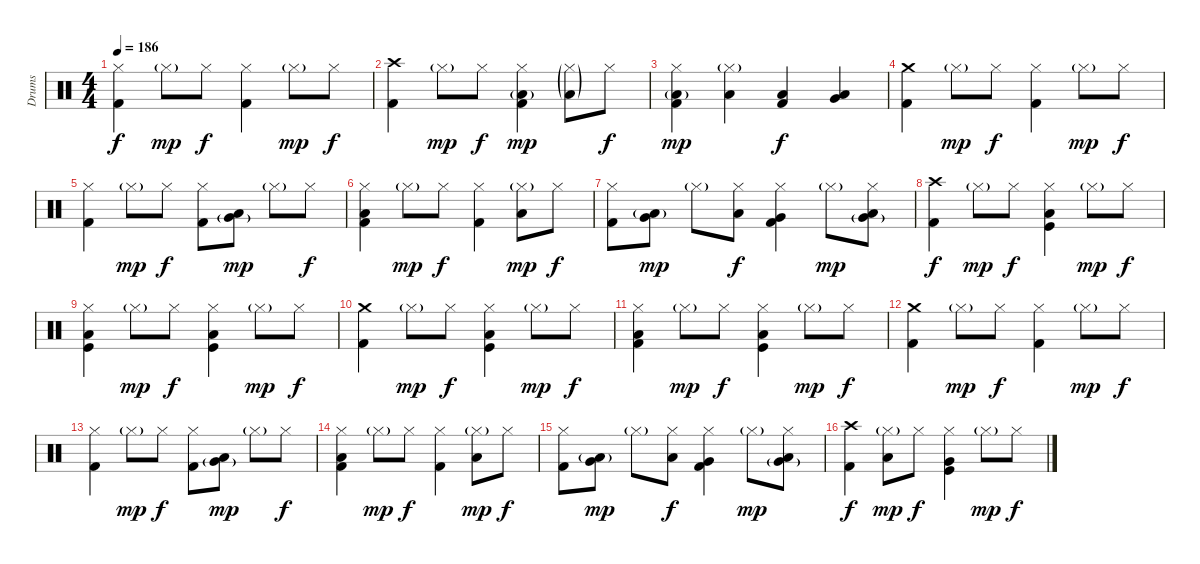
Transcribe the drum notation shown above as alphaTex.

\track ("Drums" "Drums") {instrument percussion}
\staff {score}
\articulation defaults
\ts (4 4)
\tempo 186
\clef neutral
\ks c
("Hi-Hat (closed)" "Kick (hit) 2").4{dy f} "Hi-Hat (closed)"{g}.8{dy mp} "Hi-Hat (closed)".8{dy f} ("Hi-Hat (closed)" "Kick (hit) 2").4 "Hi-Hat (closed)"{g}.8{dy mp} "Hi-Hat (closed)".8{dy f} |
("Crash high (hit)" "Kick (hit) 2").4 "Hi-Hat (closed)"{g}.8{dy mp} "Hi-Hat (closed)".8{dy f} ("Hi-Hat (closed)" "Low Floor Tom (hit)"{g} "Kick (hit) 2").4{dy mp} ("Hi-Hat (closed)"{g} "Low Floor Tom (hit)"{g}).8 "Hi-Hat (closed)".8{dy f} |
("Hi-Hat (closed)" "Low Floor Tom (hit)"{g} "Kick (hit) 2").4{dy mp} ("Hi-Hat (closed)"{g} "Low Floor Tom (hit)").4 ("Low Floor Tom (hit)" "Kick (hit) 2").4{dy f} ("Very Low Tom (hit)" "Low Floor Tom (hit)").4 |
("Crash medium (hit)" "Kick (hit) 2").4 "Hi-Hat (closed)"{g}.8{dy mp} "Hi-Hat (closed)".8{dy f} ("Hi-Hat (closed)" "Kick (hit) 2").4 "Hi-Hat (closed)"{g}.8{dy mp} "Hi-Hat (closed)".8{dy f} |
("Hi-Hat (closed)" "Kick (hit) 2").4 "Hi-Hat (closed)"{g}.8{dy mp} "Hi-Hat (closed)".8{dy f} ("Hi-Hat (closed)" "Kick (hit) 2").8 ("Very Low Tom (hit)"{g} "Low Tom (hit)").8{dy mp} "Hi-Hat (closed)"{g}.8 "Hi-Hat (closed)".8{dy f} |
("Hi-Hat (closed)" "Low Floor Tom (hit)" "Kick (hit) 2").4 "Hi-Hat (closed)"{g}.8{dy mp} "Hi-Hat (closed)".8{dy f} ("Hi-Hat (closed)" "Kick (hit) 2").4 ("Hi-Hat (closed)"{g} "Low Floor Tom (hit)").8{dy mp} "Hi-Hat (closed)".8{dy f} |
("Hi-Hat (closed)" "Kick (hit) 2").8 ("Very Low Tom (hit)" "Low Floor Tom (hit)"{g}).8{dy mp} "Hi-Hat (closed)"{g}.8 ("Hi-Hat (closed)" "Low Floor Tom (hit)").8{dy f} ("Hi-Hat (closed)" "Very Low Tom (hit)" "Kick (hit) 2").4 "Hi-Hat (closed)"{g}.8{dy mp} ("Hi-Hat (closed)" "Very Low Tom (hit)"{g} "Low Floor Tom (hit)").8 |
("Crash high (hit)" "Kick (hit) 2").4{dy f} "Hi-Hat (closed)"{g}.8{dy mp} "Hi-Hat (closed)".8{dy f} ("Hi-Hat (closed)" "Low Floor Tom (hit)" "Kick (hit)").4 "Hi-Hat (closed)"{g}.8{dy mp} "Hi-Hat (closed)".8{dy f} |
("Hi-Hat (closed)" "Low Floor Tom (hit)" "Kick (hit)").4 "Hi-Hat (closed)"{g}.8{dy mp} "Hi-Hat (closed)".8{dy f} ("Hi-Hat (closed)" "Low Floor Tom (hit)" "Kick (hit)").4 "Hi-Hat (closed)"{g}.8{dy mp} "Hi-Hat (closed)".8{dy f} |
("Crash medium (hit)" "Kick (hit) 2").4 "Hi-Hat (closed)"{g}.8{dy mp} "Hi-Hat (closed)".8{dy f} ("Hi-Hat (closed)" "Low Floor Tom (hit)" "Kick (hit)").4 "Hi-Hat (closed)"{g}.8{dy mp} "Hi-Hat (closed)".8{dy f} |
("Hi-Hat (closed)" "Low Floor Tom (hit)" "Kick (hit) 2").4 "Hi-Hat (closed)"{g}.8{dy mp} "Hi-Hat (closed)".8{dy f} ("Hi-Hat (closed)" "Low Floor Tom (hit)" "Kick (hit)").4 "Hi-Hat (closed)"{g}.8{dy mp} "Hi-Hat (closed)".8{dy f} |
("Crash medium (hit)" "Kick (hit) 2").4 "Hi-Hat (closed)"{g}.8{dy mp} "Hi-Hat (closed)".8{dy f} ("Hi-Hat (closed)" "Kick (hit) 2").4 "Hi-Hat (closed)"{g}.8{dy mp} "Hi-Hat (closed)".8{dy f} |
("Hi-Hat (closed)" "Kick (hit) 2").4 "Hi-Hat (closed)"{g}.8{dy mp} "Hi-Hat (closed)".8{dy f} ("Hi-Hat (closed)" "Kick (hit) 2").8 ("Very Low Tom (hit)"{g} "Low Tom (hit)").8{dy mp} "Hi-Hat (closed)"{g}.8 "Hi-Hat (closed)".8{dy f} |
("Hi-Hat (closed)" "Low Floor Tom (hit)" "Kick (hit) 2").4 "Hi-Hat (closed)"{g}.8{dy mp} "Hi-Hat (closed)".8{dy f} ("Hi-Hat (closed)" "Kick (hit) 2").4 ("Hi-Hat (closed)"{g} "Low Floor Tom (hit)").8{dy mp} "Hi-Hat (closed)".8{dy f} |
("Hi-Hat (closed)" "Kick (hit) 2").8 ("Very Low Tom (hit)" "Low Floor Tom (hit)"{g}).8{dy mp} "Hi-Hat (closed)"{g}.8 ("Hi-Hat (closed)" "Low Floor Tom (hit)").8{dy f} ("Hi-Hat (closed)" "Very Low Tom (hit)" "Kick (hit) 2").4 "Hi-Hat (closed)"{g}.8{dy mp} ("Hi-Hat (closed)" "Very Low Tom (hit)"{g} "Low Floor Tom (hit)").8 |
("Crash high (hit)" "Kick (hit) 2").4{dy f} ("Hi-Hat (closed)"{g} "Low Floor Tom (hit)").8{dy mp} "Hi-Hat (closed)".8{dy f} ("Hi-Hat (closed)" "Very Low Tom (hit)" "Kick (hit)").4 "Hi-Hat (closed)"{g}.8{dy mp} "Hi-Hat (closed)".8{dy f}
